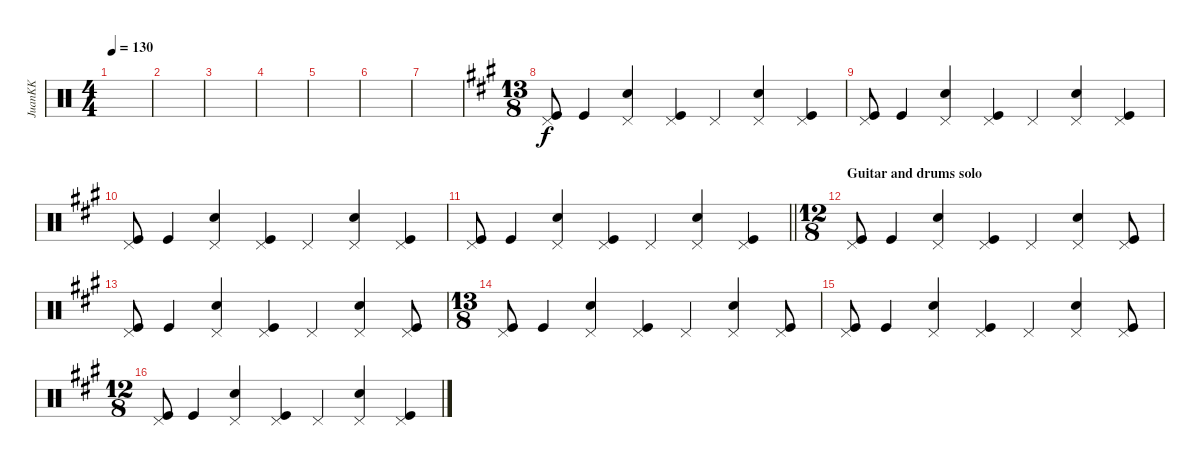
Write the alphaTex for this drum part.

\track ("JuanKK" "JuanKK") {instrument percussion}
\staff {score}
\articulation defaults
\ts (4 4)
\tempo 130
\clef neutral
\ks c
|
|
|
|
|
|
|
\ts (13 8)
\ks a
("Kick (hit)" "Pedal Hi-Hat (hit)").8 "Kick (hit)".4 ("Electric Snare (hit)" "Pedal Hi-Hat (hit)").4 ("Kick (hit)" "Pedal Hi-Hat (hit)").4 "Pedal Hi-Hat (hit)".4 ("Electric Snare (hit)" "Pedal Hi-Hat (hit)").4 ("Kick (hit)" "Pedal Hi-Hat (hit)").4 |
("Kick (hit)" "Pedal Hi-Hat (hit)").8 "Kick (hit)".4 ("Electric Snare (hit)" "Pedal Hi-Hat (hit)").4 ("Kick (hit)" "Pedal Hi-Hat (hit)").4 "Pedal Hi-Hat (hit)".4 ("Electric Snare (hit)" "Pedal Hi-Hat (hit)").4 ("Kick (hit)" "Pedal Hi-Hat (hit)").4 |
("Kick (hit)" "Pedal Hi-Hat (hit)").8 "Kick (hit)".4 ("Electric Snare (hit)" "Pedal Hi-Hat (hit)").4 ("Kick (hit)" "Pedal Hi-Hat (hit)").4 "Pedal Hi-Hat (hit)".4 ("Electric Snare (hit)" "Pedal Hi-Hat (hit)").4 ("Kick (hit)" "Pedal Hi-Hat (hit)").4 |
\barLineRight lightlight
("Kick (hit)" "Pedal Hi-Hat (hit)").8 "Kick (hit)".4 ("Electric Snare (hit)" "Pedal Hi-Hat (hit)").4 ("Kick (hit)" "Pedal Hi-Hat (hit)").4 "Pedal Hi-Hat (hit)".4 ("Electric Snare (hit)" "Pedal Hi-Hat (hit)").4 ("Kick (hit)" "Pedal Hi-Hat (hit)").4 |
\ts (12 8)
\section ("" "Guitar and drums solo")
("Kick (hit)" "Pedal Hi-Hat (hit)").8 "Kick (hit)".4 ("Electric Snare (hit)" "Pedal Hi-Hat (hit)").4 ("Kick (hit)" "Pedal Hi-Hat (hit)").4 "Pedal Hi-Hat (hit)".4 ("Electric Snare (hit)" "Pedal Hi-Hat (hit)").4 ("Kick (hit)" "Pedal Hi-Hat (hit)").8 |
("Kick (hit)" "Pedal Hi-Hat (hit)").8 "Kick (hit)".4 ("Electric Snare (hit)" "Pedal Hi-Hat (hit)").4 ("Kick (hit)" "Pedal Hi-Hat (hit)").4 "Pedal Hi-Hat (hit)".4 ("Electric Snare (hit)" "Pedal Hi-Hat (hit)").4 ("Kick (hit)" "Pedal Hi-Hat (hit)").8 |
\ts (13 8)
("Kick (hit)" "Pedal Hi-Hat (hit)").8 "Kick (hit)".4 ("Electric Snare (hit)" "Pedal Hi-Hat (hit)").4 ("Kick (hit)" "Pedal Hi-Hat (hit)").4 "Pedal Hi-Hat (hit)".4 ("Electric Snare (hit)" "Pedal Hi-Hat (hit)").4 ("Kick (hit)" "Pedal Hi-Hat (hit)").8 |
("Kick (hit)" "Pedal Hi-Hat (hit)").8 "Kick (hit)".4 ("Electric Snare (hit)" "Pedal Hi-Hat (hit)").4 ("Kick (hit)" "Pedal Hi-Hat (hit)").4 "Pedal Hi-Hat (hit)".4 ("Electric Snare (hit)" "Pedal Hi-Hat (hit)").4 ("Kick (hit)" "Pedal Hi-Hat (hit)").8 |
\ts (12 8)
("Kick (hit)" "Pedal Hi-Hat (hit)").8 "Kick (hit)".4 ("Electric Snare (hit)" "Pedal Hi-Hat (hit)").4 ("Kick (hit)" "Pedal Hi-Hat (hit)").4 "Pedal Hi-Hat (hit)".4 ("Electric Snare (hit)" "Pedal Hi-Hat (hit)").4 ("Kick (hit)" "Pedal Hi-Hat (hit)").4
